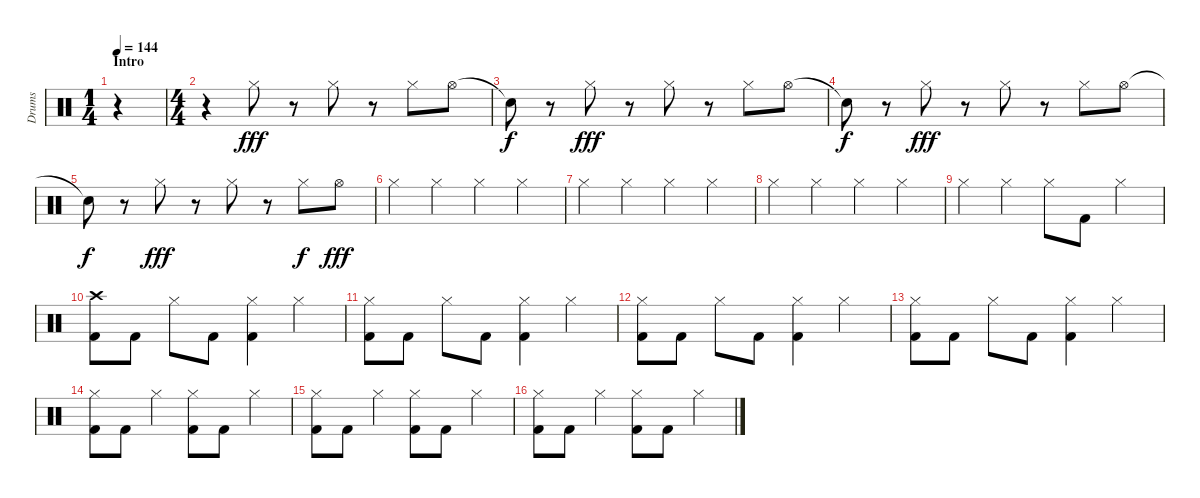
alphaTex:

\track ("Drums" "Drums") {instrument percussion}
\staff {score}
\articulation defaults
\ts (1 4)
\section ("" "Intro")
\tempo 144
\clef neutral
\ks c
r.4{dy fff} |
\ts (4 4)
r.4 "Hi-Hat (closed)".8 r.8 "Hi-Hat (closed)".8 r.8 "Hi-Hat (closed)".8 "Hi-Hat (open)".8 |
"Snare (hit)"{t}.8{dy f} r.8 "Hi-Hat (closed)".8{dy fff} r.8 "Hi-Hat (closed)".8 r.8 "Hi-Hat (closed)".8 "Hi-Hat (open)".8 |
"Snare (hit)"{t}.8{dy f} r.8 "Hi-Hat (closed)".8{dy fff} r.8 "Hi-Hat (closed)".8 r.8 "Hi-Hat (closed)".8 "Hi-Hat (open)".8 |
"Snare (hit)"{t}.8{dy f} r.8 "Hi-Hat (closed)".8{dy fff} r.8 "Hi-Hat (closed)".8 r.8 "Hi-Hat (closed)".8{dy f} "Hi-Hat (open)".8{dy fff} |
"Hi-Hat (closed)".4 "Hi-Hat (closed)".4 "Hi-Hat (closed)".4 "Hi-Hat (closed)".4 |
"Hi-Hat (closed)".4 "Hi-Hat (closed)".4 "Hi-Hat (closed)".4 "Hi-Hat (closed)".4 |
"Hi-Hat (closed)".4 "Hi-Hat (closed)".4 "Hi-Hat (closed)".4 "Hi-Hat (closed)".4 |
"Hi-Hat (closed)".4 "Hi-Hat (closed)".4 "Hi-Hat (closed)".8 "Kick (hit) 2".8 "Hi-Hat (closed)".4 |
("Crash high (hit)" "Kick (hit) 2").8 "Kick (hit) 2".8 "Hi-Hat (closed)".8 "Kick (hit) 2".8 ("Hi-Hat (closed)" "Kick (hit) 2").4 "Hi-Hat (closed)".4 |
("Hi-Hat (closed)" "Kick (hit) 2").8 "Kick (hit) 2".8 "Hi-Hat (closed)".8 "Kick (hit) 2".8 ("Hi-Hat (closed)" "Kick (hit) 2").4 "Hi-Hat (closed)".4 |
("Hi-Hat (closed)" "Kick (hit) 2").8 "Kick (hit) 2".8 "Hi-Hat (closed)".8 "Kick (hit) 2".8 ("Hi-Hat (closed)" "Kick (hit) 2").4 "Hi-Hat (closed)".4 |
("Hi-Hat (closed)" "Kick (hit) 2").8 "Kick (hit) 2".8 "Hi-Hat (closed)".8 "Kick (hit) 2".8 ("Hi-Hat (closed)" "Kick (hit) 2").4 "Hi-Hat (closed)".4 |
("Hi-Hat (closed)" "Kick (hit) 2").8 "Kick (hit) 2".8 "Hi-Hat (closed)".4 ("Hi-Hat (closed)" "Kick (hit) 2").8 "Kick (hit) 2".8 "Hi-Hat (closed)".4 |
("Hi-Hat (closed)" "Kick (hit) 2").8 "Kick (hit) 2".8 "Hi-Hat (closed)".4 ("Hi-Hat (closed)" "Kick (hit) 2").8 "Kick (hit) 2".8 "Hi-Hat (closed)".4 |
("Hi-Hat (closed)" "Kick (hit) 2").8 "Kick (hit) 2".8 "Hi-Hat (closed)".4 ("Hi-Hat (closed)" "Kick (hit) 2").8 "Kick (hit) 2".8 "Hi-Hat (closed)".4
